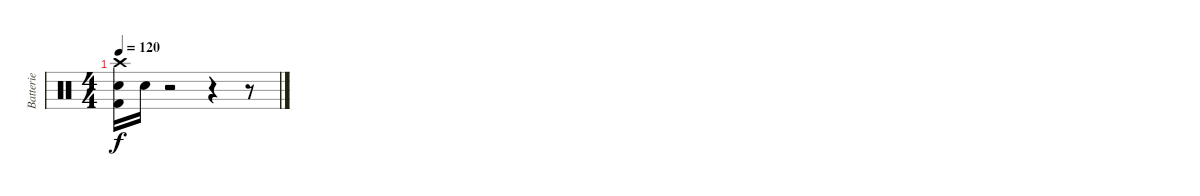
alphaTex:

\track ("Batterie" "Batterie") {instrument percussion}
\staff {score}
\articulation defaults
\ts (4 4)
\tempo 120
\clef neutral
\ks c
("Crash high (hit)" "Electric Snare (hit)" "Kick (hit) 2").16{dy f} "Electric Snare (hit)".16 r.2 r.4 r.8
